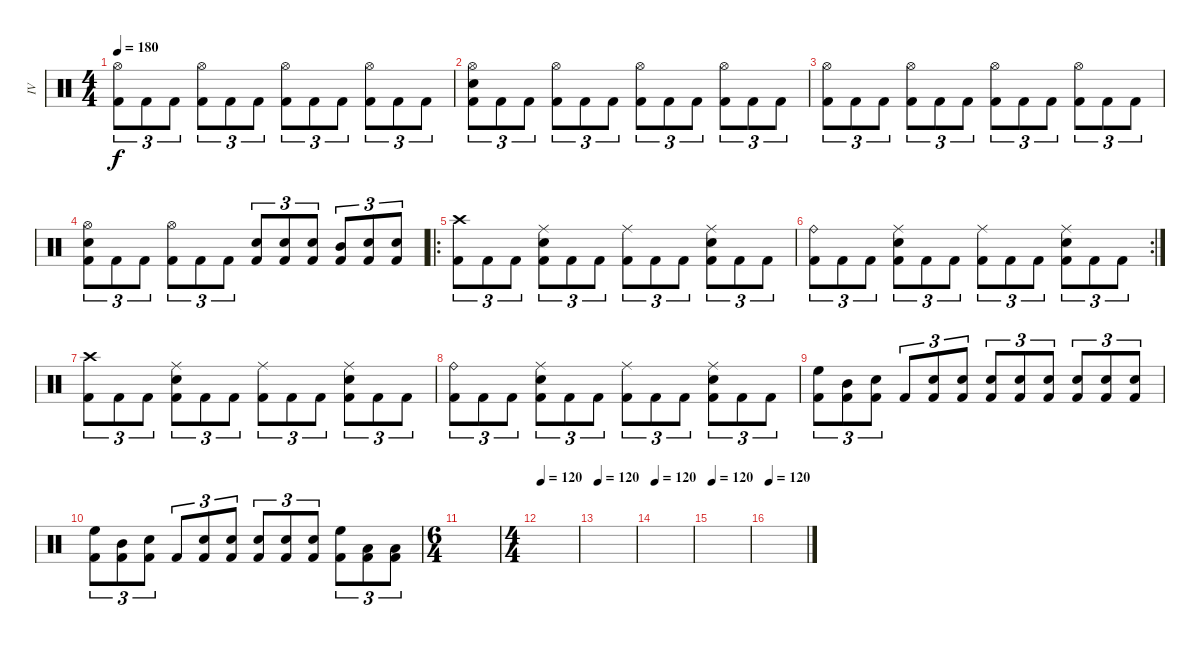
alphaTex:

\track ("IV" "IV") {instrument percussion}
\staff {score}
\articulation defaults
\ts (4 4)
\tempo 180
\clef neutral
\ks c
("Hi-Hat (open)" "Kick (hit) 2").8{tu (3 2) dy f} "Kick (hit) 2".8{tu (3 2)} "Kick (hit) 2".8{tu (3 2)} ("Hi-Hat (open)" "Kick (hit) 2").8{tu (3 2)} "Kick (hit) 2".8{tu (3 2)} "Kick (hit) 2".8{tu (3 2)} ("Hi-Hat (open)" "Kick (hit) 2").8{tu (3 2)} "Kick (hit) 2".8{tu (3 2)} "Kick (hit) 2".8{tu (3 2)} ("Hi-Hat (open)" "Kick (hit) 2").8{tu (3 2)} "Kick (hit) 2".8{tu (3 2)} "Kick (hit) 2".8{tu (3 2)} |
("Hi-Hat (open)" "Snare (hit) 2" "Kick (hit) 2").8{tu (3 2)} "Kick (hit) 2".8{tu (3 2)} "Kick (hit) 2".8{tu (3 2)} ("Hi-Hat (open)" "Kick (hit) 2").8{tu (3 2)} "Kick (hit) 2".8{tu (3 2)} "Kick (hit) 2".8{tu (3 2)} ("Hi-Hat (open)" "Kick (hit) 2").8{tu (3 2)} "Kick (hit) 2".8{tu (3 2)} "Kick (hit) 2".8{tu (3 2)} ("Hi-Hat (open)" "Kick (hit) 2").8{tu (3 2)} "Kick (hit) 2".8{tu (3 2)} "Kick (hit) 2".8{tu (3 2)} |
("Hi-Hat (open)" "Kick (hit) 2").8{tu (3 2)} "Kick (hit) 2".8{tu (3 2)} "Kick (hit) 2".8{tu (3 2)} ("Hi-Hat (open)" "Kick (hit) 2").8{tu (3 2)} "Kick (hit) 2".8{tu (3 2)} "Kick (hit) 2".8{tu (3 2)} ("Hi-Hat (open)" "Kick (hit) 2").8{tu (3 2)} "Kick (hit) 2".8{tu (3 2)} "Kick (hit) 2".8{tu (3 2)} ("Hi-Hat (open)" "Kick (hit) 2").8{tu (3 2)} "Kick (hit) 2".8{tu (3 2)} "Kick (hit) 2".8{tu (3 2)} |
("Hi-Hat (open)" "Snare (hit) 2" "Kick (hit) 2").8{tu (3 2)} "Kick (hit) 2".8{tu (3 2)} "Kick (hit) 2".8{tu (3 2)} ("Hi-Hat (open)" "Kick (hit) 2").8{tu (3 2)} "Kick (hit) 2".8{tu (3 2)} "Kick (hit) 2".8{tu (3 2)} ("Snare (hit) 2" "Kick (hit) 2").8{tu (3 2)} ("Snare (hit) 2" "Kick (hit) 2").8{tu (3 2)} ("Snare (hit) 2" "Kick (hit) 2").8{tu (3 2)} ("Mid Tom (hit)" "Kick (hit) 2").8{tu (3 2)} ("Snare (hit) 2" "Kick (hit) 2").8{tu (3 2)} ("Snare (hit) 2" "Kick (hit) 2").8{tu (3 2)} |
\ro
("Crash high (hit)" "Kick (hit) 2").8{tu (3 2)} "Kick (hit) 2".8{tu (3 2)} "Kick (hit) 2".8{tu (3 2)} ("Ride (middle)" "Snare (hit) 2" "Kick (hit) 2").8{tu (3 2)} "Kick (hit) 2".8{tu (3 2)} "Kick (hit) 2".8{tu (3 2)} ("Ride (middle)" "Kick (hit) 2").8{tu (3 2)} "Kick (hit) 2".8{tu (3 2)} "Kick (hit) 2".8{tu (3 2)} ("Ride (middle)" "Snare (hit) 2" "Kick (hit) 2").8{tu (3 2)} "Kick (hit) 2".8{tu (3 2)} "Kick (hit) 2".8{tu (3 2)} |
\rc 2
("Ride (bell)" "Kick (hit) 2").8{tu (3 2)} "Kick (hit) 2".8{tu (3 2)} "Kick (hit) 2".8{tu (3 2)} ("Ride (middle)" "Snare (hit) 2" "Kick (hit) 2").8{tu (3 2)} "Kick (hit) 2".8{tu (3 2)} "Kick (hit) 2".8{tu (3 2)} ("Ride (middle)" "Kick (hit) 2").8{tu (3 2)} "Kick (hit) 2".8{tu (3 2)} "Kick (hit) 2".8{tu (3 2)} ("Ride (middle)" "Snare (hit) 2" "Kick (hit) 2").8{tu (3 2)} "Kick (hit) 2".8{tu (3 2)} "Kick (hit) 2".8{tu (3 2)} |
("Crash high (hit)" "Kick (hit) 2").8{tu (3 2)} "Kick (hit) 2".8{tu (3 2)} "Kick (hit) 2".8{tu (3 2)} ("Ride (middle)" "Snare (hit) 2" "Kick (hit) 2").8{tu (3 2)} "Kick (hit) 2".8{tu (3 2)} "Kick (hit) 2".8{tu (3 2)} ("Ride (middle)" "Kick (hit) 2").8{tu (3 2)} "Kick (hit) 2".8{tu (3 2)} "Kick (hit) 2".8{tu (3 2)} ("Ride (middle)" "Snare (hit) 2" "Kick (hit) 2").8{tu (3 2)} "Kick (hit) 2".8{tu (3 2)} "Kick (hit) 2".8{tu (3 2)} |
("Ride (bell)" "Kick (hit) 2").8{tu (3 2)} "Kick (hit) 2".8{tu (3 2)} "Kick (hit) 2".8{tu (3 2)} ("Ride (middle)" "Snare (hit) 2" "Kick (hit) 2").8{tu (3 2)} "Kick (hit) 2".8{tu (3 2)} "Kick (hit) 2".8{tu (3 2)} ("Ride (middle)" "Kick (hit) 2").8{tu (3 2)} "Kick (hit) 2".8{tu (3 2)} "Kick (hit) 2".8{tu (3 2)} ("Ride (middle)" "Snare (hit) 2" "Kick (hit) 2").8{tu (3 2)} "Kick (hit) 2".8{tu (3 2)} "Kick (hit) 2".8{tu (3 2)} |
("High Floor Tom (hit)" "Kick (hit) 2").8{tu (3 2)} ("Mid Tom (hit)" "Kick (hit) 2").8{tu (3 2)} ("Snare (hit) 2" "Kick (hit) 2").8{tu (3 2)} "Kick (hit) 2".8{tu (3 2)} ("Snare (hit) 2" "Kick (hit) 2").8{tu (3 2)} ("Snare (hit) 2" "Kick (hit) 2").8{tu (3 2)} ("Snare (hit) 2" "Kick (hit) 2").8{tu (3 2)} ("Snare (hit) 2" "Kick (hit) 2").8{tu (3 2)} ("Snare (hit) 2" "Kick (hit) 2").8{tu (3 2)} ("Snare (hit) 2" "Kick (hit) 2").8{tu (3 2)} ("Snare (hit) 2" "Kick (hit) 2").8{tu (3 2)} ("Snare (hit) 2" "Kick (hit) 2").8{tu (3 2)} |
("High Floor Tom (hit)" "Kick (hit) 2").8{tu (3 2)} ("Mid Tom (hit)" "Kick (hit) 2").8{tu (3 2)} ("Snare (hit) 2" "Kick (hit) 2").8{tu (3 2)} "Kick (hit) 2".8{tu (3 2)} ("Snare (hit) 2" "Kick (hit) 2").8{tu (3 2)} ("Snare (hit) 2" "Kick (hit) 2").8{tu (3 2)} ("Snare (hit) 2" "Kick (hit) 2").8{tu (3 2)} ("Snare (hit) 2" "Kick (hit) 2").8{tu (3 2)} ("Snare (hit) 2" "Kick (hit) 2").8{tu (3 2)} ("High Floor Tom (hit)" "Kick (hit) 2").8{tu (3 2)} ("Low Tom (hit)" "Kick (hit) 2").8{tu (3 2)} ("Low Floor Tom (hit)" "Kick (hit) 2").8{tu (3 2)} |
\ts (6 4)
|
\ts (4 4)
\tempo 120
|
\tempo 120
|
\tempo 120
|
\tempo 120
|
\tempo 120
